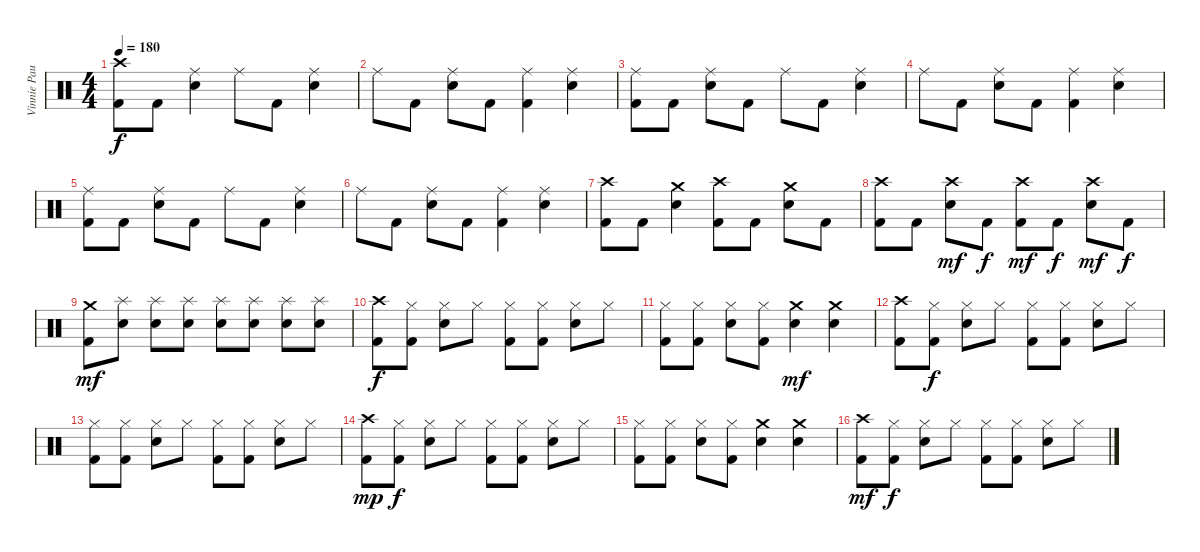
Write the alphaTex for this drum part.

\track ("Vinnie Paul" "Vinnie Pau") {instrument percussion}
\staff {score}
\articulation defaults
\ts (4 4)
\tempo 180
\clef neutral
\ks c
("Crash high (hit)" "Kick (hit) 2").8{dy f} "Kick (hit) 2".8 ("Ride (middle)" "Electric Snare (hit)").4 "Ride (middle)".8 "Kick (hit) 2".8 ("Ride (middle)" "Electric Snare (hit)").4 |
"Ride (middle)".8 "Kick (hit) 2".8 ("Ride (middle)" "Electric Snare (hit)").8 "Kick (hit) 2".8 ("Ride (middle)" "Kick (hit) 2").4 ("Ride (middle)" "Electric Snare (hit)").4 |
("Ride (middle)" "Kick (hit) 2").8 "Kick (hit) 2".8 ("Ride (middle)" "Electric Snare (hit)").8 "Kick (hit) 2".8 "Ride (middle)".8 "Kick (hit) 2".8 ("Ride (middle)" "Electric Snare (hit)").4 |
"Ride (middle)".8 "Kick (hit) 2".8 ("Ride (middle)" "Electric Snare (hit)").8 "Kick (hit) 2".8 ("Ride (middle)" "Kick (hit) 2").4 ("Ride (middle)" "Electric Snare (hit)").4 |
("Ride (middle)" "Kick (hit) 2").8 "Kick (hit) 2".8 ("Ride (middle)" "Electric Snare (hit)").8 "Kick (hit) 2".8 "Ride (middle)".8 "Kick (hit) 2".8 ("Ride (middle)" "Electric Snare (hit)").4 |
"Ride (middle)".8 "Kick (hit) 2".8 ("Ride (middle)" "Electric Snare (hit)").8 "Kick (hit) 2".8 ("Ride (middle)" "Kick (hit) 2").4 ("Ride (middle)" "Electric Snare (hit)").4 |
("Crash high (hit)" "Kick (hit) 2").8 "Kick (hit) 2".8 ("Crash medium (hit)" "Electric Snare (hit)").4 ("Crash high (hit)" "Kick (hit) 2").8 "Kick (hit) 2".8 ("Crash medium (hit)" "Electric Snare (hit)").8 "Kick (hit) 2".8 |
("Crash high (hit)" "Kick (hit) 2").8 "Kick (hit) 2".8 ("Crash high (hit)" "Electric Snare (hit)").8{dy mf} "Kick (hit) 2".8{dy f} ("Crash high (hit)" "Kick (hit) 2").8{dy mf} "Kick (hit) 2".8{dy f} ("Crash high (hit)" "Electric Snare (hit)").8{dy mf} "Kick (hit) 2".8{dy f} |
("Crash medium (hit)" "Kick (hit) 2").8{dy mf} ("Splash (hit)" "Electric Snare (hit)").8 ("Splash (hit)" "Electric Snare (hit)").8 ("Splash (hit)" "Electric Snare (hit)").8 ("Splash (hit)" "Electric Snare (hit)").8 ("Splash (hit)" "Electric Snare (hit)").8 ("Splash (hit)" "Electric Snare (hit)").8 ("Splash (hit)" "Electric Snare (hit)").8 |
("Crash high (hit)" "Kick (hit) 2").8{dy f} ("Hi-Hat (closed)" "Kick (hit) 2").8 ("Hi-Hat (closed)" "Electric Snare (hit)").8 "Hi-Hat (closed)".8 ("Hi-Hat (closed)" "Kick (hit) 2").8 ("Hi-Hat (closed)" "Kick (hit) 2").8 ("Hi-Hat (closed)" "Electric Snare (hit)").8 "Hi-Hat (closed)".8 |
("Hi-Hat (closed)" "Kick (hit) 2").8 ("Hi-Hat (closed)" "Kick (hit) 2").8 ("Hi-Hat (closed)" "Electric Snare (hit)").8 ("Hi-Hat (closed)" "Kick (hit) 2").8 ("Crash medium (hit)" "Electric Snare (hit)").4{dy mf} ("Crash medium (hit)" "Electric Snare (hit)").4 |
("Crash high (hit)" "Kick (hit) 2").8 ("Hi-Hat (closed)" "Kick (hit) 2").8{dy f} ("Hi-Hat (closed)" "Electric Snare (hit)").8 "Hi-Hat (closed)".8 ("Hi-Hat (closed)" "Kick (hit) 2").8 ("Hi-Hat (closed)" "Kick (hit) 2").8 ("Hi-Hat (closed)" "Electric Snare (hit)").8 "Hi-Hat (closed)".8 |
("Hi-Hat (closed)" "Kick (hit) 2").8 ("Hi-Hat (closed)" "Kick (hit) 2").8 ("Hi-Hat (closed)" "Electric Snare (hit)").8 "Hi-Hat (closed)".8 ("Hi-Hat (closed)" "Kick (hit) 2").8 ("Hi-Hat (closed)" "Kick (hit) 2").8 ("Hi-Hat (closed)" "Electric Snare (hit)").8 "Hi-Hat (closed)".8 |
("Crash high (hit)" "Kick (hit) 2").8{dy mp} ("Hi-Hat (closed)" "Kick (hit) 2").8{dy f} ("Hi-Hat (closed)" "Electric Snare (hit)").8 "Hi-Hat (closed)".8 ("Hi-Hat (closed)" "Kick (hit) 2").8 ("Hi-Hat (closed)" "Kick (hit) 2").8 ("Hi-Hat (closed)" "Electric Snare (hit)").8 "Hi-Hat (closed)".8 |
("Hi-Hat (closed)" "Kick (hit) 2").8 ("Hi-Hat (closed)" "Kick (hit) 2").8 ("Hi-Hat (closed)" "Electric Snare (hit)").8 ("Hi-Hat (closed)" "Kick (hit) 2").8 ("Crash medium (hit)" "Electric Snare (hit)").4 ("Crash medium (hit)" "Electric Snare (hit)").4 |
("Crash high (hit)" "Kick (hit) 2").8{dy mf} ("Hi-Hat (closed)" "Kick (hit) 2").8{dy f} ("Hi-Hat (closed)" "Electric Snare (hit)").8 "Hi-Hat (closed)".8 ("Hi-Hat (closed)" "Kick (hit) 2").8 ("Hi-Hat (closed)" "Kick (hit) 2").8 ("Hi-Hat (closed)" "Electric Snare (hit)").8 "Hi-Hat (closed)".8
